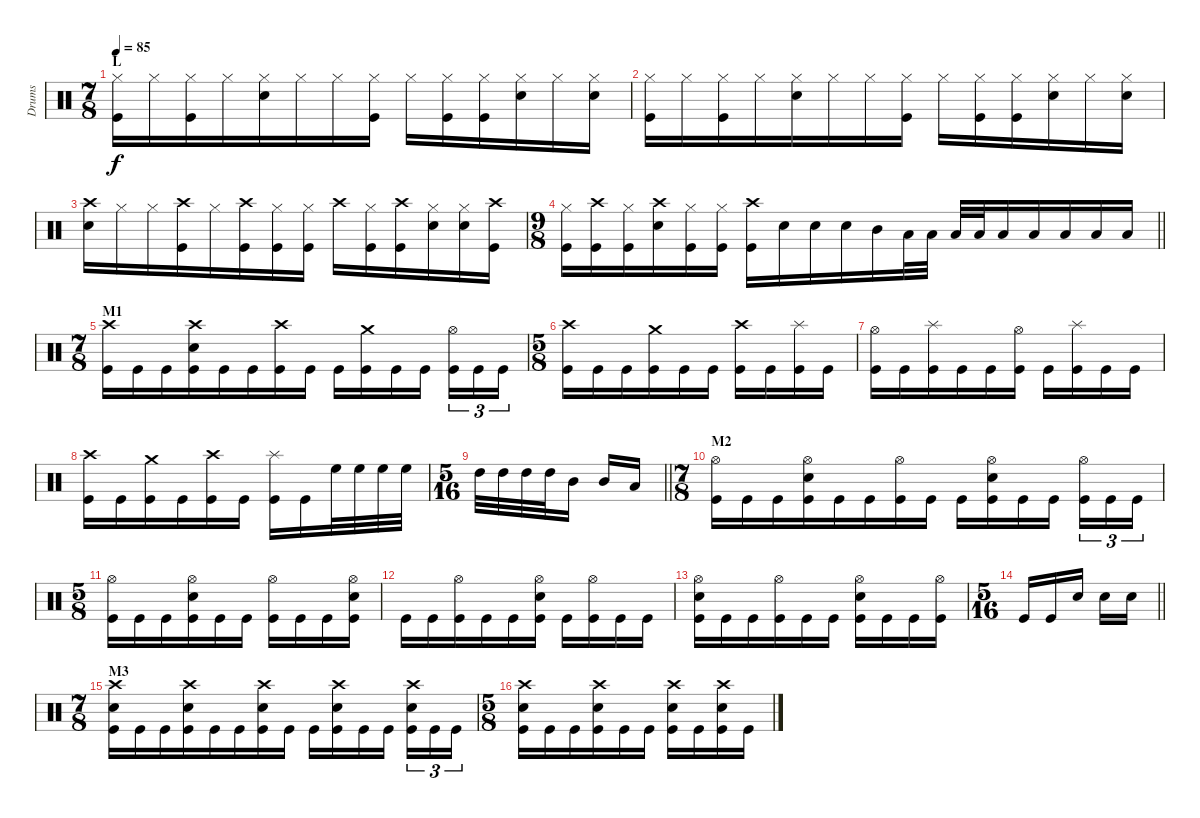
\track ("Drums" "Drums") {instrument percussion}
\staff {score}
\articulation defaults
\ts (7 8)
\section ("" "L")
\tempo 85
\clef neutral
\ks c
("Hi-Hat (closed)" "Kick (hit)").16{dy f} "Hi-Hat (closed)".16 ("Hi-Hat (closed)" "Kick (hit)").16 "Hi-Hat (closed)".16 ("Hi-Hat (closed)" "Snare (hit) 2").16 "Hi-Hat (closed)".16 "Hi-Hat (closed)".16 ("Hi-Hat (closed)" "Kick (hit)").16 "Hi-Hat (closed)".16 ("Hi-Hat (closed)" "Kick (hit)").16 ("Hi-Hat (closed)" "Kick (hit)").16 ("Hi-Hat (closed)" "Snare (hit) 2").16 "Hi-Hat (closed)".16 ("Hi-Hat (closed)" "Snare (hit) 2").16 |
("Hi-Hat (closed)" "Kick (hit)").16 "Hi-Hat (closed)".16 ("Hi-Hat (closed)" "Kick (hit)").16 "Hi-Hat (closed)".16 ("Hi-Hat (closed)" "Snare (hit) 2").16 "Hi-Hat (closed)".16 "Hi-Hat (closed)".16 ("Hi-Hat (closed)" "Kick (hit)").16 "Hi-Hat (closed)".16 ("Hi-Hat (closed)" "Kick (hit)").16 ("Hi-Hat (closed)" "Kick (hit)").16 ("Hi-Hat (closed)" "Snare (hit) 2").16 "Hi-Hat (closed)".16 ("Hi-Hat (closed)" "Snare (hit) 2").16 |
("Snare (hit) 2" "Crash high (hit)").16 "Hi-Hat (closed)".16 "Hi-Hat (closed)".16 ("Crash high (hit)" "Kick (hit)").16 "Hi-Hat (closed)".16 ("Crash high (hit)" "Kick (hit)").16 ("Hi-Hat (closed)" "Kick (hit)").16 ("Hi-Hat (closed)" "Kick (hit)").16 "Crash high (hit)".16 ("Hi-Hat (closed)" "Kick (hit)").16 ("Crash high (hit)" "Kick (hit)").16 ("Hi-Hat (closed)" "Snare (hit) 2").16 ("Hi-Hat (closed)" "Snare (hit) 2").16 ("Crash high (hit)" "Kick (hit)").16 |
\ts (9 8)
\barLineRight lightlight
("Hi-Hat (closed)" "Kick (hit)").16 ("Crash high (hit)" "Kick (hit)").16 ("Hi-Hat (closed)" "Kick (hit)").16 ("Crash high (hit)" "Snare (hit) 2").16 ("Hi-Hat (closed)" "Kick (hit)").16 ("Hi-Hat (closed)" "Kick (hit)").16 ("Crash high (hit)" "Kick (hit)").16 "Snare (hit) 2".16 "Snare (hit) 2".16 "Snare (hit) 2".16 "Mid Tom (hit)".16 "Low Tom (hit)".32 "Low Tom (hit)".32 "Low Tom (hit)".32 "Low Tom (hit)".32 "Low Floor Tom (hit)".16 "Low Floor Tom (hit)".16 "Low Floor Tom (hit)".16 "Low Floor Tom (hit)".16 "Low Floor Tom (hit)".16 |
\ts (7 8)
\section ("" "M1")
("Crash high (hit)" "Kick (hit)").16 "Kick (hit)".16 "Kick (hit)".16 ("Crash high (hit)" "Kick (hit)" "Snare (hit) 2").16 "Kick (hit)".16 "Kick (hit)".16 ("Crash high (hit)" "Kick (hit)").16 "Kick (hit)".16 "Kick (hit)".16 ("Crash medium (hit)" "Kick (hit)").16 "Kick (hit)".16 "Kick (hit)".16 ("Hi-Hat (open)" "Kick (hit)").16{tu (3 2)} "Kick (hit)".16{tu (3 2)} "Kick (hit)".16{tu (3 2)} |
\ts (5 8)
("Kick (hit)" "Crash high (hit)").16 "Kick (hit)".16 "Kick (hit)".16 ("Crash medium (hit)" "Kick (hit)").16 "Kick (hit)".16 "Kick (hit)".16 ("Crash high (hit)" "Kick (hit)").16 "Kick (hit)".16 ("Splash (hit)" "Kick (hit)").16 "Kick (hit)".16 |
("Hi-Hat (open)" "Kick (hit)").16 "Kick (hit)".16 ("Splash (hit)" "Kick (hit)").16 "Kick (hit)".16 "Kick (hit)".16 ("Hi-Hat (open)" "Kick (hit)").16 "Kick (hit)".16 ("Splash (hit)" "Kick (hit)").16 "Kick (hit)".16 "Kick (hit)".16 |
("Crash high (hit)" "Kick (hit)").16 "Kick (hit)".16 ("Crash medium (hit)" "Kick (hit)").16 "Kick (hit)".16 ("Crash high (hit)" "Kick (hit)").16 "Kick (hit)".16 ("Splash (hit)" "Kick (hit)").16 "Kick (hit)".16 "High Floor Tom (hit)".32 "High Floor Tom (hit)".32 "High Floor Tom (hit)".32 "High Floor Tom (hit)".32 |
\ts (5 16)
\barLineRight lightlight "High Tom (hit)".32 "High Tom (hit)".32 "High Tom (hit)".32 "High Tom (hit)".32 "Mid Tom (hit)".16 "Mid Tom (hit)".16 "Low Tom (hit)".16
|
\ts (7 8)
\section ("" "M2")
("Hi-Hat (open)" "Kick (hit)").16 "Kick (hit)".16 "Kick (hit)".16 ("Hi-Hat (open)" "Kick (hit)" "Snare (hit) 2").16 "Kick (hit)".16 "Kick (hit)".16 ("Hi-Hat (open)" "Kick (hit)").16 "Kick (hit)".16 "Kick (hit)".16 ("Hi-Hat (open)" "Kick (hit)" "Snare (hit) 2").16 "Kick (hit)".16 "Kick (hit)".16 ("Hi-Hat (open)" "Kick (hit)").16{tu (3 2)} "Kick (hit)".16{tu (3 2)} "Kick (hit)".16{tu (3 2)} |
\ts (5 8)
("Hi-Hat (open)" "Kick (hit)").16 "Kick (hit)".16 "Kick (hit)".16 ("Hi-Hat (open)" "Kick (hit)" "Snare (hit) 2").16 "Kick (hit)".16 "Kick (hit)".16 ("Hi-Hat (open)" "Kick (hit)").16 "Kick (hit)".16 "Kick (hit)".16 ("Hi-Hat (open)" "Kick (hit)" "Snare (hit) 2").16 |
"Kick (hit)".16 "Kick (hit)".16 ("Hi-Hat (open)" "Kick (hit)").16 "Kick (hit)".16 "Kick (hit)".16 ("Hi-Hat (open)" "Kick (hit)" "Snare (hit) 2").16 "Kick (hit)".16 ("Hi-Hat (open)" "Kick (hit)").16 "Kick (hit)".16 "Kick (hit)".16 |
("Hi-Hat (open)" "Snare (hit) 2" "Kick (hit)").16 "Kick (hit)".16 "Kick (hit)".16 ("Hi-Hat (open)" "Kick (hit)").16 "Kick (hit)".16 "Kick (hit)".16 ("Hi-Hat (open)" "Kick (hit)" "Snare (hit) 2").16 "Kick (hit)".16 "Kick (hit)".16 ("Hi-Hat (open)" "Kick (hit)").16 |
\ts (5 16)
\barLineRight lightlight "Kick (hit)".16 "Kick (hit)".16 "Snare (hit) 2".16 "Snare (hit) 2".16 "Snare (hit) 2".16
|
\ts (7 8)
\section ("" "M3")
("Crash high (hit)" "Snare (hit) 2" "Kick (hit)").16 "Kick (hit)".16 "Kick (hit)".16 ("Crash high (hit)" "Snare (hit) 2" "Kick (hit)").16 "Kick (hit)".16 "Kick (hit)".16 ("Crash high (hit)" "Snare (hit) 2" "Kick (hit)").16 "Kick (hit)".16 "Kick (hit)".16 ("Crash high (hit)" "Snare (hit) 2" "Kick (hit)").16 "Kick (hit)".16 "Kick (hit)".16 ("Crash high (hit)" "Snare (hit) 2" "Kick (hit)").16{tu (3 2)} "Kick (hit)".16{tu (3 2)} "Kick (hit)".16{tu (3 2)} |
\ts (5 8)
("Crash high (hit)" "Snare (hit) 2" "Kick (hit)").16 "Kick (hit)".16 "Kick (hit)".16 ("Crash high (hit)" "Snare (hit) 2" "Kick (hit)").16 "Kick (hit)".16 "Kick (hit)".16 ("Crash high (hit)" "Snare (hit) 2" "Kick (hit)").16 "Kick (hit)".16 ("Crash high (hit)" "Snare (hit) 2" "Kick (hit)").16 "Kick (hit)".16
